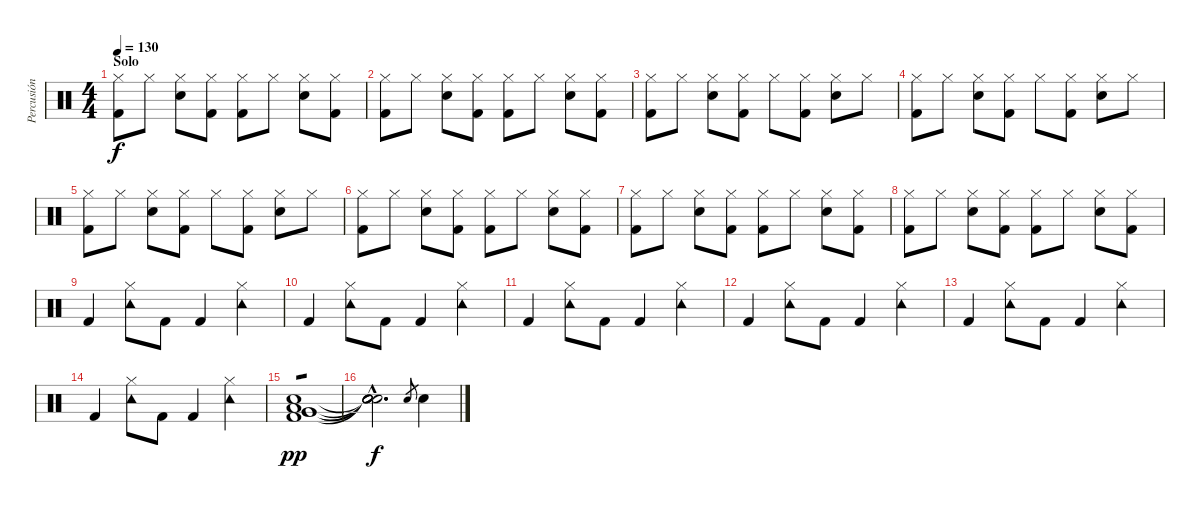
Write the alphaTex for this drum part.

\track ("Percusión" "Percusión") {instrument percussion}
\staff {score}
\articulation defaults
\ts (4 4)
\section ("" "Solo")
\tempo 130
\clef neutral
\ks c
("Hi-Hat (closed)" "Kick (hit) 2").8{dy f} "Hi-Hat (closed)".8 ("Hi-Hat (closed)" "Electric Snare (hit)").8 ("Hi-Hat (closed)" "Kick (hit) 2").8 ("Hi-Hat (closed)" "Kick (hit) 2").8 "Hi-Hat (closed)".8 ("Hi-Hat (closed)" "Electric Snare (hit)").8 ("Hi-Hat (closed)" "Kick (hit) 2").8 |
("Hi-Hat (closed)" "Kick (hit) 2").8 "Hi-Hat (closed)".8 ("Hi-Hat (closed)" "Electric Snare (hit)").8 ("Hi-Hat (closed)" "Kick (hit) 2").8 ("Hi-Hat (closed)" "Kick (hit) 2").8 "Hi-Hat (closed)".8 ("Hi-Hat (closed)" "Electric Snare (hit)").8 ("Hi-Hat (closed)" "Kick (hit) 2").8 |
("Hi-Hat (closed)" "Kick (hit) 2").8 "Hi-Hat (closed)".8 ("Hi-Hat (closed)" "Electric Snare (hit)").8 ("Hi-Hat (closed)" "Kick (hit) 2").8 "Hi-Hat (closed)".8 ("Hi-Hat (closed)" "Kick (hit) 2").8 ("Hi-Hat (closed)" "Electric Snare (hit)").8 "Hi-Hat (closed)".8 |
("Hi-Hat (closed)" "Kick (hit) 2").8 "Hi-Hat (closed)".8 ("Hi-Hat (closed)" "Electric Snare (hit)").8 ("Hi-Hat (closed)" "Kick (hit) 2").8 "Hi-Hat (closed)".8 ("Hi-Hat (closed)" "Kick (hit) 2").8 ("Hi-Hat (closed)" "Electric Snare (hit)").8 "Hi-Hat (closed)".8 |
("Hi-Hat (closed)" "Kick (hit) 2").8 "Hi-Hat (closed)".8 ("Hi-Hat (closed)" "Electric Snare (hit)").8 ("Hi-Hat (closed)" "Kick (hit) 2").8 "Hi-Hat (closed)".8 ("Hi-Hat (closed)" "Kick (hit) 2").8 ("Hi-Hat (closed)" "Electric Snare (hit)").8 "Hi-Hat (closed)".8 |
("Hi-Hat (closed)" "Kick (hit) 2").8 "Hi-Hat (closed)".8 ("Hi-Hat (closed)" "Electric Snare (hit)").8 ("Hi-Hat (closed)" "Kick (hit) 2").8 ("Hi-Hat (closed)" "Kick (hit) 2").8 "Hi-Hat (closed)".8 ("Hi-Hat (closed)" "Electric Snare (hit)").8 ("Hi-Hat (closed)" "Kick (hit) 2").8 |
("Hi-Hat (closed)" "Kick (hit) 2").8 "Hi-Hat (closed)".8 ("Hi-Hat (closed)" "Electric Snare (hit)").8 ("Hi-Hat (closed)" "Kick (hit) 2").8 ("Hi-Hat (closed)" "Kick (hit) 2").8 "Hi-Hat (closed)".8 ("Hi-Hat (closed)" "Electric Snare (hit)").8 ("Hi-Hat (closed)" "Kick (hit) 2").8 |
("Hi-Hat (closed)" "Kick (hit) 2").8 "Hi-Hat (closed)".8 ("Hi-Hat (closed)" "Electric Snare (hit)").8 ("Hi-Hat (closed)" "Kick (hit) 2").8 ("Hi-Hat (closed)" "Kick (hit) 2").8 "Hi-Hat (closed)".8 ("Hi-Hat (closed)" "Electric Snare (hit)").8 ("Hi-Hat (closed)" "Kick (hit) 2").8 |
"Kick (hit) 2".4 ("Hi-Hat (closed)" "Tambourine (hit)").8 "Kick (hit) 2".8 "Kick (hit) 2".4 ("Hi-Hat (closed)" "Tambourine (hit)").4 |
"Kick (hit) 2".4 ("Hi-Hat (closed)" "Tambourine (hit)").8 "Kick (hit) 2".8 "Kick (hit) 2".4 ("Hi-Hat (closed)" "Tambourine (hit)").4 |
"Kick (hit) 2".4 ("Hi-Hat (closed)" "Tambourine (hit)").8 "Kick (hit) 2".8 "Kick (hit) 2".4 ("Hi-Hat (closed)" "Tambourine (hit)").4 |
"Kick (hit) 2".4 ("Hi-Hat (closed)" "Tambourine (hit)").8 "Kick (hit) 2".8 "Kick (hit) 2".4 ("Hi-Hat (closed)" "Tambourine (hit)").4 |
"Kick (hit) 2".4 ("Hi-Hat (closed)" "Tambourine (hit)").8 "Kick (hit) 2".8 "Kick (hit) 2".4 ("Hi-Hat (closed)" "Tambourine (hit)").4 |
"Kick (hit) 2".4 ("Hi-Hat (closed)" "Tambourine (hit)").8 "Kick (hit) 2".8 "Kick (hit) 2".4 ("Hi-Hat (closed)" "Tambourine (hit)").4 |
("Very Low Tom (hit)" "Low Floor Tom (hit)" "Electric Snare (hit)" "Very Low Tom (hit)" "Kick (hit) 2").1{tp 1 dy pp} |
("Snare (hit)"{hac t} "Snare (hit)"{hac t} "Snare (hit)"{hac t} "Snare (hit)"{hac t} "Snare (hit)"{hac t}).2{d dy f} "Electric Snare (hit)".8{gr} "Electric Snare (hit)".4
